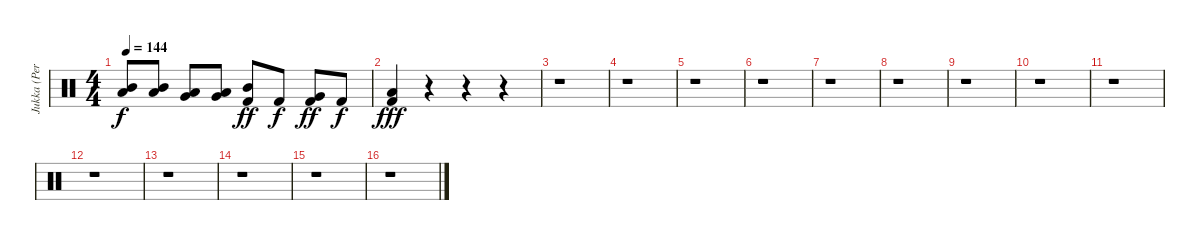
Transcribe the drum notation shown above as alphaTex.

\track ("Jukka (Percussion)" "Jukka (Per") {instrument percussion}
\staff {score}
\articulation defaults
\ts (4 4)
\tempo 144
\clef neutral
\ks c
("Mid Tom (hit)" "Low Tom (hit)").8{dy f} ("Mid Tom (hit)" "Low Tom (hit)").8 ("Low Tom (hit)" "Very Low Tom (hit)").8 ("Low Tom (hit)" "Very Low Tom (hit)").8 ("Mid Tom (hit)" "Kick (hit) 2").8{dy ff} "Kick (hit) 2".8{dy f} ("Very Low Tom (hit)" "Kick (hit) 2").8{dy ff} "Kick (hit) 2".8{dy f} |
("Low Floor Tom (hit)" "Kick (hit) 2").4{dy fff} r.4 r.4 r.4 |
r.1 |
r.1 |
r.1 |
r.1 |
r.1 |
r.1 |
r.1 |
r.1 |
r.1 |
r.1 |
r.1 |
r.1 |
r.1 |
r.1
